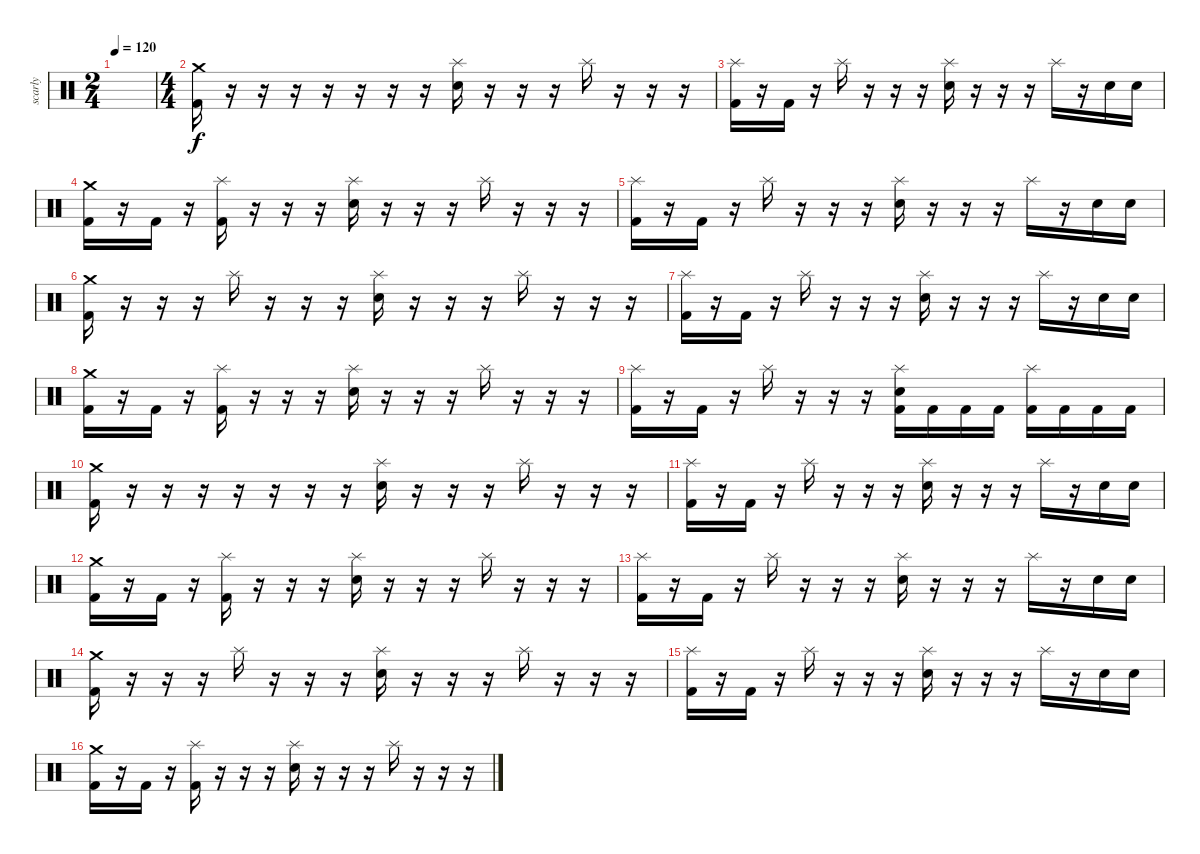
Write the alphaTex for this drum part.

\track ("scarly" "scarly") {instrument percussion}
\staff {score}
\articulation defaults
\ts (2 4)
\tempo 120
\clef neutral
\ks c
|
\ts (4 4)
("Kick (hit) 2" "Crash medium (hit)").16 r.16 r.16 r.16 r.16 r.16 r.16 r.16 ("Snare (hit) 2" "Splash (hit)").16 r.16 r.16 r.16 "Splash (hit)".16 r.16 r.16 r.16 |
("Kick (hit) 2" "Splash (hit)").16 r.16 "Kick (hit) 2".16 r.16 "Splash (hit)".16 r.16 r.16 r.16 ("Snare (hit) 2" "Splash (hit)").16 r.16 r.16 r.16 "Splash (hit)".16 r.16 "Snare (hit) 2".16 "Snare (hit) 2".16 |
("Kick (hit) 2" "Crash medium (hit)").16 r.16 "Kick (hit) 2".16 r.16 ("Kick (hit) 2" "Splash (hit)").16 r.16 r.16 r.16 ("Snare (hit) 2" "Splash (hit)").16 r.16 r.16 r.16 "Splash (hit)".16 r.16 r.16 r.16 |
("Kick (hit) 2" "Splash (hit)").16 r.16 "Kick (hit) 2".16 r.16 "Splash (hit)".16 r.16 r.16 r.16 ("Snare (hit) 2" "Splash (hit)").16 r.16 r.16 r.16 "Splash (hit)".16 r.16 "Snare (hit) 2".16 "Snare (hit) 2".16 |
("Kick (hit) 2" "Crash medium (hit)").16 r.16 r.16 r.16 "Splash (hit)".16 r.16 r.16 r.16 ("Snare (hit) 2" "Splash (hit)").16 r.16 r.16 r.16 "Splash (hit)".16 r.16 r.16 r.16 |
("Kick (hit) 2" "Splash (hit)").16 r.16 "Kick (hit) 2".16 r.16 "Splash (hit)".16 r.16 r.16 r.16 ("Snare (hit) 2" "Splash (hit)").16 r.16 r.16 r.16 "Splash (hit)".16 r.16 "Snare (hit) 2".16 "Snare (hit) 2".16 |
("Kick (hit) 2" "Crash medium (hit)").16 r.16 "Kick (hit) 2".16 r.16 ("Kick (hit) 2" "Splash (hit)").16 r.16 r.16 r.16 ("Snare (hit) 2" "Splash (hit)").16 r.16 r.16 r.16 "Splash (hit)".16 r.16 r.16 r.16 |
("Kick (hit) 2" "Splash (hit)").16 r.16 "Kick (hit) 2".16 r.16 "Splash (hit)".16 r.16 r.16 r.16 ("Snare (hit) 2" "Kick (hit) 2" "Splash (hit)").16 "Kick (hit) 2".16 "Kick (hit) 2".16 "Kick (hit) 2".16 ("Kick (hit) 2" "Splash (hit)").16 "Kick (hit) 2".16 "Kick (hit) 2".16 "Kick (hit) 2".16 |
("Kick (hit) 2" "Crash medium (hit)").16 r.16 r.16 r.16 r.16 r.16 r.16 r.16 ("Snare (hit) 2" "Splash (hit)").16 r.16 r.16 r.16 "Splash (hit)".16 r.16 r.16 r.16 |
("Kick (hit) 2" "Splash (hit)").16 r.16 "Kick (hit) 2".16 r.16 "Splash (hit)".16 r.16 r.16 r.16 ("Snare (hit) 2" "Splash (hit)").16 r.16 r.16 r.16 "Splash (hit)".16 r.16 "Snare (hit) 2".16 "Snare (hit) 2".16 |
("Kick (hit) 2" "Crash medium (hit)").16 r.16 "Kick (hit) 2".16 r.16 ("Kick (hit) 2" "Splash (hit)").16 r.16 r.16 r.16 ("Snare (hit) 2" "Splash (hit)").16 r.16 r.16 r.16 "Splash (hit)".16 r.16 r.16 r.16 |
("Kick (hit) 2" "Splash (hit)").16 r.16 "Kick (hit) 2".16 r.16 "Splash (hit)".16 r.16 r.16 r.16 ("Snare (hit) 2" "Splash (hit)").16 r.16 r.16 r.16 "Splash (hit)".16 r.16 "Snare (hit) 2".16 "Snare (hit) 2".16 |
("Kick (hit) 2" "Crash medium (hit)").16 r.16 r.16 r.16 "Splash (hit)".16 r.16 r.16 r.16 ("Snare (hit) 2" "Splash (hit)").16 r.16 r.16 r.16 "Splash (hit)".16 r.16 r.16 r.16 |
("Kick (hit) 2" "Splash (hit)").16 r.16 "Kick (hit) 2".16 r.16 "Splash (hit)".16 r.16 r.16 r.16 ("Snare (hit) 2" "Splash (hit)").16 r.16 r.16 r.16 "Splash (hit)".16 r.16 "Snare (hit) 2".16 "Snare (hit) 2".16 |
("Kick (hit) 2" "Crash medium (hit)").16 r.16 "Kick (hit) 2".16 r.16 ("Kick (hit) 2" "Splash (hit)").16 r.16 r.16 r.16 ("Snare (hit) 2" "Splash (hit)").16 r.16 r.16 r.16 "Splash (hit)".16 r.16 r.16 r.16
